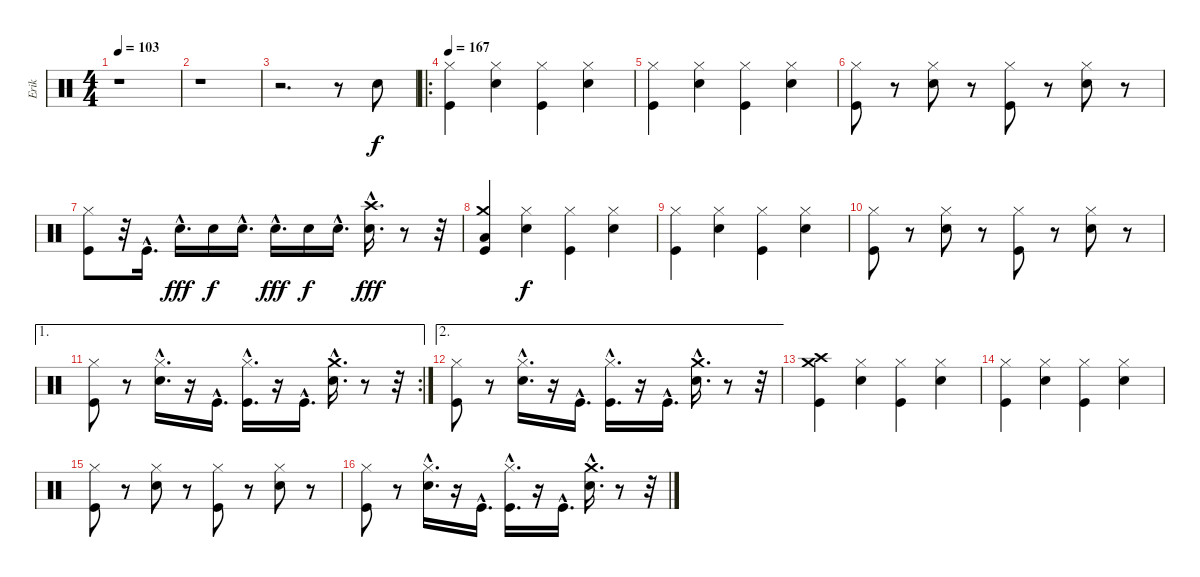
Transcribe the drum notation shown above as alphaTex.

\track ("Erik" "Erik") {instrument percussion}
\staff {score}
\articulation defaults
\ts (4 4)
\tempo 103
\clef neutral
\ks c
r.1{dy f} |
r.1 |
r.2{d} r.8 "Electric Snare (hit)".8 |
\ro
\tempo 167
("Hi-Hat (closed)" "Kick (hit)").4 ("Electric Snare (hit)" "Hi-Hat (closed)").4 ("Kick (hit)" "Hi-Hat (closed)").4 ("Electric Snare (hit)" "Hi-Hat (closed)").4 |
("Kick (hit)" "Hi-Hat (closed)").4 ("Hi-Hat (closed)" "Electric Snare (hit)").4 ("Hi-Hat (closed)" "Kick (hit)").4 ("Hi-Hat (closed)" "Electric Snare (hit)").4 |
("Hi-Hat (closed)" "Kick (hit)").8 r.8 ("Electric Snare (hit)" "Hi-Hat (closed)").8 r.8 ("Kick (hit)" "Hi-Hat (closed)").8 r.8 ("Electric Snare (hit)" "Hi-Hat (closed)").8 r.8 |
("Hi-Hat (closed)" "Kick (hit)").8 r.32 "Kick (hit)"{hac}.16{d} "Electric Snare (hit)"{hac}.16{d dy fff} "Electric Snare (hit)".16{dy f} "Electric Snare (hit)"{hac}.16{d} "Electric Snare (hit)"{hac}.16{d dy fff} "Electric Snare (hit)".16{dy f} "Electric Snare (hit)"{hac}.16{d} ("Electric Snare (hit)"{hac} "Crash high (hit)"{hac}).16{d dy fff} r.8 r.32 |
("Crash medium (hit)" "Low Tom (hit)" "Kick (hit)").4 ("Hi-Hat (closed)" "Electric Snare (hit)").4{dy f} ("Kick (hit)" "Hi-Hat (closed)").4 ("Electric Snare (hit)" "Hi-Hat (closed)").4 |
("Kick (hit)" "Hi-Hat (closed)").4 ("Hi-Hat (closed)" "Electric Snare (hit)").4 ("Hi-Hat (closed)" "Kick (hit)").4 ("Hi-Hat (closed)" "Electric Snare (hit)").4 |
("Hi-Hat (closed)" "Kick (hit)").8 r.8 ("Electric Snare (hit)" "Hi-Hat (closed)").8 r.8 ("Kick (hit)" "Hi-Hat (closed)").8 r.8 ("Electric Snare (hit)" "Hi-Hat (closed)").8 r.8 |
\ae 1
\rc 2
("Hi-Hat (closed)" "Kick (hit)").8 r.8 ("Hi-Hat (closed)"{hac} "Electric Snare (hit)"{hac}).16{d} r.16 "Kick (hit)"{hac}.16{d} ("Hi-Hat (closed)"{hac} "Kick (hit)"{hac}).16{d} r.16 "Kick (hit)"{hac}.16{d} ("Crash medium (hit)"{hac} "Electric Snare (hit)"{hac}).16{d} r.8 r.32 |
\ae 2
("Hi-Hat (closed)" "Kick (hit)").8 r.8 ("Hi-Hat (closed)"{hac} "Electric Snare (hit)"{hac}).16{d} r.16 "Kick (hit)"{hac}.16{d} ("Hi-Hat (closed)"{hac} "Kick (hit)"{hac}).16{d} r.16 "Kick (hit)"{hac}.16{d} ("Crash medium (hit)"{hac} "Electric Snare (hit)"{hac}).16{d} r.8 r.32 |
("Crash high (hit)" "Kick (hit)" "Crash medium (hit)").4 ("Electric Snare (hit)" "Hi-Hat (closed)").4 ("Hi-Hat (closed)" "Kick (hit)").4 ("Hi-Hat (closed)" "Electric Snare (hit)").4 |
("Kick (hit)" "Hi-Hat (closed)").4 ("Hi-Hat (closed)" "Electric Snare (hit)").4 ("Hi-Hat (closed)" "Kick (hit)").4 ("Hi-Hat (closed)" "Electric Snare (hit)").4 |
("Hi-Hat (closed)" "Kick (hit)").8 r.8 ("Electric Snare (hit)" "Hi-Hat (closed)").8 r.8 ("Kick (hit)" "Hi-Hat (closed)").8 r.8 ("Electric Snare (hit)" "Hi-Hat (closed)").8 r.8 |
("Hi-Hat (closed)" "Kick (hit)").8 r.8 ("Hi-Hat (closed)"{hac} "Electric Snare (hit)"{hac}).16{d} r.16 "Kick (hit)"{hac}.16{d} ("Kick (hit)"{hac} "Hi-Hat (closed)"{hac}).16{d} r.16 "Kick (hit)"{hac}.16{d} ("Electric Snare (hit)"{hac} "Crash medium (hit)"{hac}).16{d} r.8 r.32
